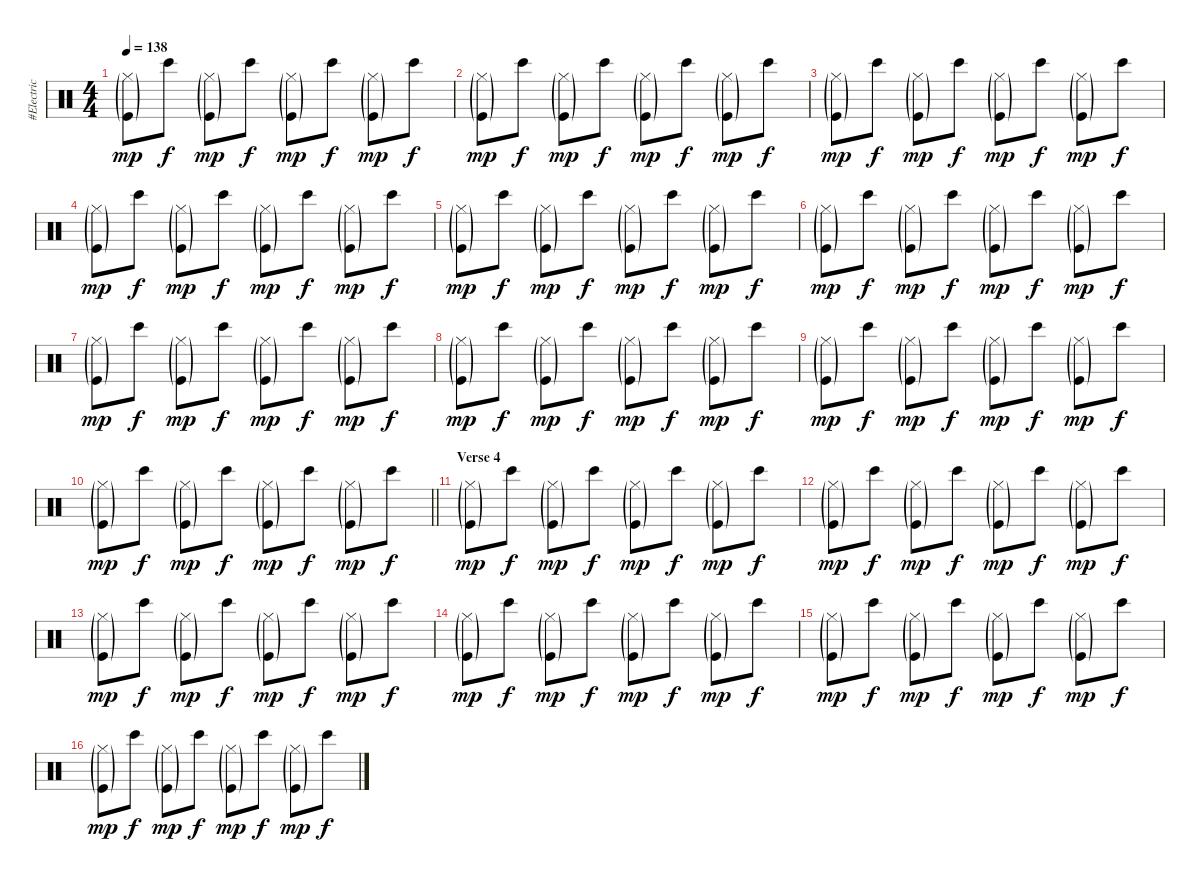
\track ("#Electric Drums" "#Electric ") {instrument percussion}
\staff {score}
\articulation defaults
\ts (4 4)
\tempo 138
\clef neutral
\ks c
("Kick (hit)"{g} "Hi-Hat (closed)"{g}).8{dy mp} "Bongo High (hit)".8{dy f} ("Kick (hit)"{g} "Hi-Hat (closed)"{g}).8{dy mp} "Bongo High (hit)".8{dy f} ("Kick (hit)"{g} "Hi-Hat (closed)"{g}).8{dy mp} "Bongo High (hit)".8{dy f} ("Kick (hit)"{g} "Hi-Hat (closed)"{g}).8{dy mp} "Bongo High (hit)".8{dy f} |
("Kick (hit)"{g} "Hi-Hat (closed)"{g}).8{dy mp} "Bongo High (hit)".8{dy f} ("Kick (hit)"{g} "Hi-Hat (closed)"{g}).8{dy mp} "Bongo High (hit)".8{dy f} ("Kick (hit)"{g} "Hi-Hat (closed)"{g}).8{dy mp} "Bongo High (hit)".8{dy f} ("Kick (hit)"{g} "Hi-Hat (closed)"{g}).8{dy mp} "Bongo High (hit)".8{dy f} |
("Kick (hit)"{g} "Hi-Hat (closed)"{g}).8{dy mp} "Bongo High (hit)".8{dy f} ("Kick (hit)"{g} "Hi-Hat (closed)"{g}).8{dy mp} "Bongo High (hit)".8{dy f} ("Kick (hit)"{g} "Hi-Hat (closed)"{g}).8{dy mp} "Bongo High (hit)".8{dy f} ("Kick (hit)"{g} "Hi-Hat (closed)"{g}).8{dy mp} "Bongo High (hit)".8{dy f} |
("Kick (hit)"{g} "Hi-Hat (closed)"{g}).8{dy mp} "Bongo High (hit)".8{dy f} ("Kick (hit)"{g} "Hi-Hat (closed)"{g}).8{dy mp} "Bongo High (hit)".8{dy f} ("Kick (hit)"{g} "Hi-Hat (closed)"{g}).8{dy mp} "Bongo High (hit)".8{dy f} ("Kick (hit)"{g} "Hi-Hat (closed)"{g}).8{dy mp} "Bongo High (hit)".8{dy f} |
("Kick (hit)"{g} "Hi-Hat (closed)"{g}).8{dy mp} "Bongo High (hit)".8{dy f} ("Kick (hit)"{g} "Hi-Hat (closed)"{g}).8{dy mp} "Bongo High (hit)".8{dy f} ("Kick (hit)"{g} "Hi-Hat (closed)"{g}).8{dy mp} "Bongo High (hit)".8{dy f} ("Kick (hit)"{g} "Hi-Hat (closed)"{g}).8{dy mp} "Bongo High (hit)".8{dy f} |
("Kick (hit)"{g} "Hi-Hat (closed)"{g}).8{dy mp} "Bongo High (hit)".8{dy f} ("Kick (hit)"{g} "Hi-Hat (closed)"{g}).8{dy mp} "Bongo High (hit)".8{dy f} ("Kick (hit)"{g} "Hi-Hat (closed)"{g}).8{dy mp} "Bongo High (hit)".8{dy f} ("Kick (hit)"{g} "Hi-Hat (closed)"{g}).8{dy mp} "Bongo High (hit)".8{dy f} |
("Kick (hit)"{g} "Hi-Hat (closed)"{g}).8{dy mp} "Bongo High (hit)".8{dy f} ("Kick (hit)"{g} "Hi-Hat (closed)"{g}).8{dy mp} "Bongo High (hit)".8{dy f} ("Kick (hit)"{g} "Hi-Hat (closed)"{g}).8{dy mp} "Bongo High (hit)".8{dy f} ("Kick (hit)"{g} "Hi-Hat (closed)"{g}).8{dy mp} "Bongo High (hit)".8{dy f} |
("Kick (hit)"{g} "Hi-Hat (closed)"{g}).8{dy mp} "Bongo High (hit)".8{dy f} ("Kick (hit)"{g} "Hi-Hat (closed)"{g}).8{dy mp} "Bongo High (hit)".8{dy f} ("Kick (hit)"{g} "Hi-Hat (closed)"{g}).8{dy mp} "Bongo High (hit)".8{dy f} ("Kick (hit)"{g} "Hi-Hat (closed)"{g}).8{dy mp} "Bongo High (hit)".8{dy f} |
("Kick (hit)"{g} "Hi-Hat (closed)"{g}).8{dy mp} "Bongo High (hit)".8{dy f} ("Kick (hit)"{g} "Hi-Hat (closed)"{g}).8{dy mp} "Bongo High (hit)".8{dy f} ("Kick (hit)"{g} "Hi-Hat (closed)"{g}).8{dy mp} "Bongo High (hit)".8{dy f} ("Kick (hit)"{g} "Hi-Hat (closed)"{g}).8{dy mp} "Bongo High (hit)".8{dy f} |
\barLineRight lightlight
("Kick (hit)"{g} "Hi-Hat (closed)"{g}).8{dy mp} "Bongo High (hit)".8{dy f} ("Kick (hit)"{g} "Hi-Hat (closed)"{g}).8{dy mp} "Bongo High (hit)".8{dy f} ("Kick (hit)"{g} "Hi-Hat (closed)"{g}).8{dy mp} "Bongo High (hit)".8{dy f} ("Kick (hit)"{g} "Hi-Hat (closed)"{g}).8{dy mp} "Bongo High (hit)".8{dy f} |
\section ("" "Verse 4")
("Kick (hit)"{g} "Hi-Hat (closed)"{g}).8{dy mp} "Bongo High (hit)".8{dy f} ("Kick (hit)"{g} "Hi-Hat (closed)"{g}).8{dy mp} "Bongo High (hit)".8{dy f} ("Kick (hit)"{g} "Hi-Hat (closed)"{g}).8{dy mp} "Bongo High (hit)".8{dy f} ("Kick (hit)"{g} "Hi-Hat (closed)"{g}).8{dy mp} "Bongo High (hit)".8{dy f} |
("Kick (hit)"{g} "Hi-Hat (closed)"{g}).8{dy mp} "Bongo High (hit)".8{dy f} ("Kick (hit)"{g} "Hi-Hat (closed)"{g}).8{dy mp} "Bongo High (hit)".8{dy f} ("Kick (hit)"{g} "Hi-Hat (closed)"{g}).8{dy mp} "Bongo High (hit)".8{dy f} ("Kick (hit)"{g} "Hi-Hat (closed)"{g}).8{dy mp} "Bongo High (hit)".8{dy f} |
("Kick (hit)"{g} "Hi-Hat (closed)"{g}).8{dy mp} "Bongo High (hit)".8{dy f} ("Kick (hit)"{g} "Hi-Hat (closed)"{g}).8{dy mp} "Bongo High (hit)".8{dy f} ("Kick (hit)"{g} "Hi-Hat (closed)"{g}).8{dy mp} "Bongo High (hit)".8{dy f} ("Kick (hit)"{g} "Hi-Hat (closed)"{g}).8{dy mp} "Bongo High (hit)".8{dy f} |
("Kick (hit)"{g} "Hi-Hat (closed)"{g}).8{dy mp} "Bongo High (hit)".8{dy f} ("Kick (hit)"{g} "Hi-Hat (closed)"{g}).8{dy mp} "Bongo High (hit)".8{dy f} ("Kick (hit)"{g} "Hi-Hat (closed)"{g}).8{dy mp} "Bongo High (hit)".8{dy f} ("Kick (hit)"{g} "Hi-Hat (closed)"{g}).8{dy mp} "Bongo High (hit)".8{dy f} |
("Kick (hit)"{g} "Hi-Hat (closed)"{g}).8{dy mp} "Bongo High (hit)".8{dy f} ("Kick (hit)"{g} "Hi-Hat (closed)"{g}).8{dy mp} "Bongo High (hit)".8{dy f} ("Kick (hit)"{g} "Hi-Hat (closed)"{g}).8{dy mp} "Bongo High (hit)".8{dy f} ("Kick (hit)"{g} "Hi-Hat (closed)"{g}).8{dy mp} "Bongo High (hit)".8{dy f} |
("Kick (hit)"{g} "Hi-Hat (closed)"{g}).8{dy mp} "Bongo High (hit)".8{dy f} ("Kick (hit)"{g} "Hi-Hat (closed)"{g}).8{dy mp} "Bongo High (hit)".8{dy f} ("Kick (hit)"{g} "Hi-Hat (closed)"{g}).8{dy mp} "Bongo High (hit)".8{dy f} ("Kick (hit)"{g} "Hi-Hat (closed)"{g}).8{dy mp} "Bongo High (hit)".8{dy f}
